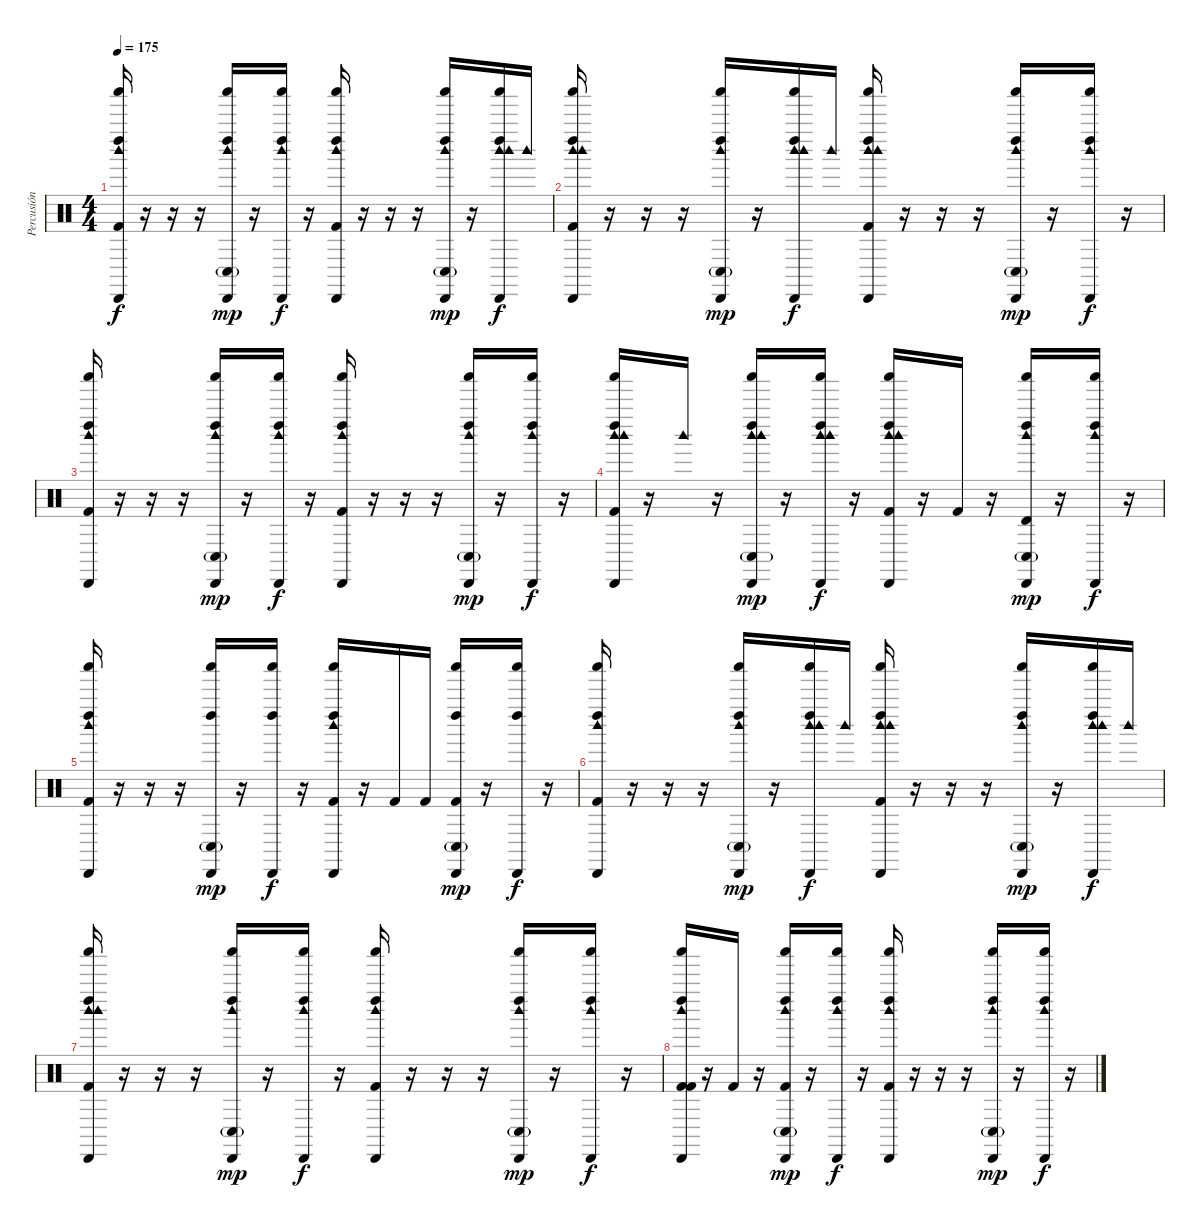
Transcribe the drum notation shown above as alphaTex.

\track ("Percusión" "Percusión") {instrument percussion}
\staff {score}
\articulation defaults
\ts (4 4)
\tempo 175
\clef neutral
\ks c
("Cabasa (hit)" "Shaker (hit)" "Kick (hit) 2" "Left Maraca (hit)" "Woodblock high (hit)").16{dy f} r.16 r.16 r.16 ("Cabasa (hit)" "Shaker (hit)" "Conga low (hit)"{g} "Left Maraca (hit)" "Woodblock high (hit)").16{dy mp} r.16 ("Cabasa (hit)" "Shaker (hit)" "Left Maraca (hit)" "Woodblock high (hit)").16{dy f} r.16 ("Cabasa (hit)" "Shaker (hit)" "Kick (hit) 2" "Left Maraca (hit)" "Woodblock high (hit)").16 r.16 r.16 r.16 ("Cabasa (hit)" "Shaker (hit)" "Conga low (hit)"{g} "Left Maraca (hit)" "Woodblock high (hit)").16{dy mp} r.16 ("Woodblock high (hit)" "Cabasa (hit)" "Shaker (hit)" "Left Maraca (hit)" "Woodblock high (hit)").16{dy f} "Woodblock high (hit)".16 |
("Woodblock high (hit)" "Cabasa (hit)" "Shaker (hit)" "Kick (hit) 2" "Left Maraca (hit)" "Woodblock high (hit)").16 r.16 r.16 r.16 ("Cabasa (hit)" "Shaker (hit)" "Conga low (hit)"{g} "Left Maraca (hit)" "Woodblock high (hit)").16{dy mp} r.16 ("Woodblock high (hit)" "Cabasa (hit)" "Shaker (hit)" "Left Maraca (hit)" "Woodblock high (hit)").16{dy f} "Woodblock high (hit)".16 ("Woodblock high (hit)" "Cabasa (hit)" "Shaker (hit)" "Kick (hit) 2" "Left Maraca (hit)" "Woodblock high (hit)").16 r.16 r.16 r.16 ("Cabasa (hit)" "Shaker (hit)" "Conga low (hit)"{g} "Left Maraca (hit)" "Woodblock high (hit)").16{dy mp} r.16 ("Cabasa (hit)" "Shaker (hit)" "Left Maraca (hit)" "Woodblock high (hit)").16{dy f} r.16 |
("Cabasa (hit)" "Shaker (hit)" "Kick (hit) 2" "Left Maraca (hit)" "Woodblock high (hit)").16 r.16 r.16 r.16 ("Cabasa (hit)" "Shaker (hit)" "Conga low (hit)"{g} "Left Maraca (hit)" "Woodblock high (hit)").16{dy mp} r.16 ("Cabasa (hit)" "Shaker (hit)" "Left Maraca (hit)" "Woodblock high (hit)").16{dy f} r.16 ("Cabasa (hit)" "Shaker (hit)" "Kick (hit) 2" "Left Maraca (hit)" "Woodblock high (hit)").16 r.16 r.16 r.16 ("Cabasa (hit)" "Shaker (hit)" "Conga low (hit)"{g} "Left Maraca (hit)" "Woodblock high (hit)").16{dy mp} r.16 ("Cabasa (hit)" "Shaker (hit)" "Left Maraca (hit)" "Woodblock high (hit)").16{dy f} r.16 |
("Woodblock high (hit)" "Cabasa (hit)" "Shaker (hit)" "Kick (hit) 2" "Left Maraca (hit)" "Woodblock high (hit)").16 r.16 "Woodblock high (hit)".16 r.16 ("Woodblock high (hit)" "Cabasa (hit)" "Shaker (hit)" "Conga low (hit)"{g} "Left Maraca (hit)" "Woodblock high (hit)").16{dy mp} r.16 ("Woodblock high (hit)" "Cabasa (hit)" "Shaker (hit)" "Left Maraca (hit)" "Woodblock high (hit)").16{dy f} r.16 ("Woodblock high (hit)" "Cabasa (hit)" "Shaker (hit)" "Kick (hit) 2" "Left Maraca (hit)" "Woodblock high (hit)").16 r.16 "Kick (hit) 2".16 r.16 ("Timbale high (hit)" "Cabasa (hit)" "Shaker (hit)" "Conga low (hit)"{g} "Left Maraca (hit)" "Woodblock high (hit)").16{dy mp} r.16 ("Cabasa (hit)" "Shaker (hit)" "Left Maraca (hit)" "Woodblock high (hit)").16{dy f} r.16 |
("Cabasa (hit)" "Shaker (hit)" "Kick (hit) 2" "Left Maraca (hit)" "Woodblock high (hit)").16 r.16 r.16 r.16 ("Cabasa (hit)" "Shaker (hit)" "Conga low (hit)"{g} "Left Maraca (hit)").16{dy mp} r.16 ("Cabasa (hit)" "Shaker (hit)" "Left Maraca (hit)").16{dy f} r.16 ("Cabasa (hit)" "Shaker (hit)" "Kick (hit) 2" "Left Maraca (hit)" "Woodblock high (hit)").16 r.16 "Kick (hit) 2".16 "Kick (hit) 2".16 ("Kick (hit) 2" "Cabasa (hit)" "Shaker (hit)" "Conga low (hit)"{g} "Left Maraca (hit)").16{dy mp} r.16 ("Cabasa (hit)" "Shaker (hit)" "Left Maraca (hit)").16{dy f} r.16 |
("Cabasa (hit)" "Shaker (hit)" "Kick (hit) 2" "Left Maraca (hit)" "Woodblock high (hit)").16 r.16 r.16 r.16 ("Cabasa (hit)" "Shaker (hit)" "Conga low (hit)"{g} "Left Maraca (hit)" "Woodblock high (hit)").16{dy mp} r.16 ("Woodblock high (hit)" "Cabasa (hit)" "Shaker (hit)" "Left Maraca (hit)" "Woodblock high (hit)").16{dy f} "Woodblock high (hit)".16 ("Woodblock high (hit)" "Cabasa (hit)" "Shaker (hit)" "Kick (hit) 2" "Left Maraca (hit)" "Woodblock high (hit)").16 r.16 r.16 r.16 ("Cabasa (hit)" "Shaker (hit)" "Conga low (hit)"{g} "Left Maraca (hit)" "Woodblock high (hit)").16{dy mp} r.16 ("Woodblock high (hit)" "Cabasa (hit)" "Shaker (hit)" "Left Maraca (hit)" "Woodblock high (hit)").16{dy f} "Woodblock high (hit)".16 |
("Woodblock high (hit)" "Cabasa (hit)" "Shaker (hit)" "Kick (hit) 2" "Left Maraca (hit)" "Woodblock high (hit)").16 r.16 r.16 r.16 ("Cabasa (hit)" "Shaker (hit)" "Conga low (hit)"{g} "Left Maraca (hit)" "Woodblock high (hit)").16{dy mp} r.16 ("Cabasa (hit)" "Shaker (hit)" "Left Maraca (hit)" "Woodblock high (hit)").16{dy f} r.16 ("Cabasa (hit)" "Shaker (hit)" "Kick (hit) 2" "Left Maraca (hit)" "Woodblock high (hit)").16 r.16 r.16 r.16 ("Cabasa (hit)" "Shaker (hit)" "Conga low (hit)"{g} "Left Maraca (hit)" "Woodblock high (hit)").16{dy mp} r.16 ("Cabasa (hit)" "Shaker (hit)" "Left Maraca (hit)" "Woodblock high (hit)").16{dy f} r.16 |
("Kick (hit) 2" "Cabasa (hit)" "Shaker (hit)" "Kick (hit) 2" "Left Maraca (hit)" "Woodblock high (hit)").16 r.16 "Kick (hit) 2".16 r.16 ("Kick (hit) 2" "Cabasa (hit)" "Shaker (hit)" "Conga low (hit)"{g} "Left Maraca (hit)" "Woodblock high (hit)").16{dy mp} r.16 ("Cabasa (hit)" "Shaker (hit)" "Left Maraca (hit)" "Woodblock high (hit)").16{dy f} r.16 ("Cabasa (hit)" "Shaker (hit)" "Kick (hit) 2" "Left Maraca (hit)" "Woodblock high (hit)").16 r.16 r.16 r.16 ("Cabasa (hit)" "Shaker (hit)" "Conga low (hit)"{g} "Left Maraca (hit)" "Woodblock high (hit)").16{dy mp} r.16 ("Cabasa (hit)" "Shaker (hit)" "Left Maraca (hit)" "Woodblock high (hit)").16{dy f} r.16
